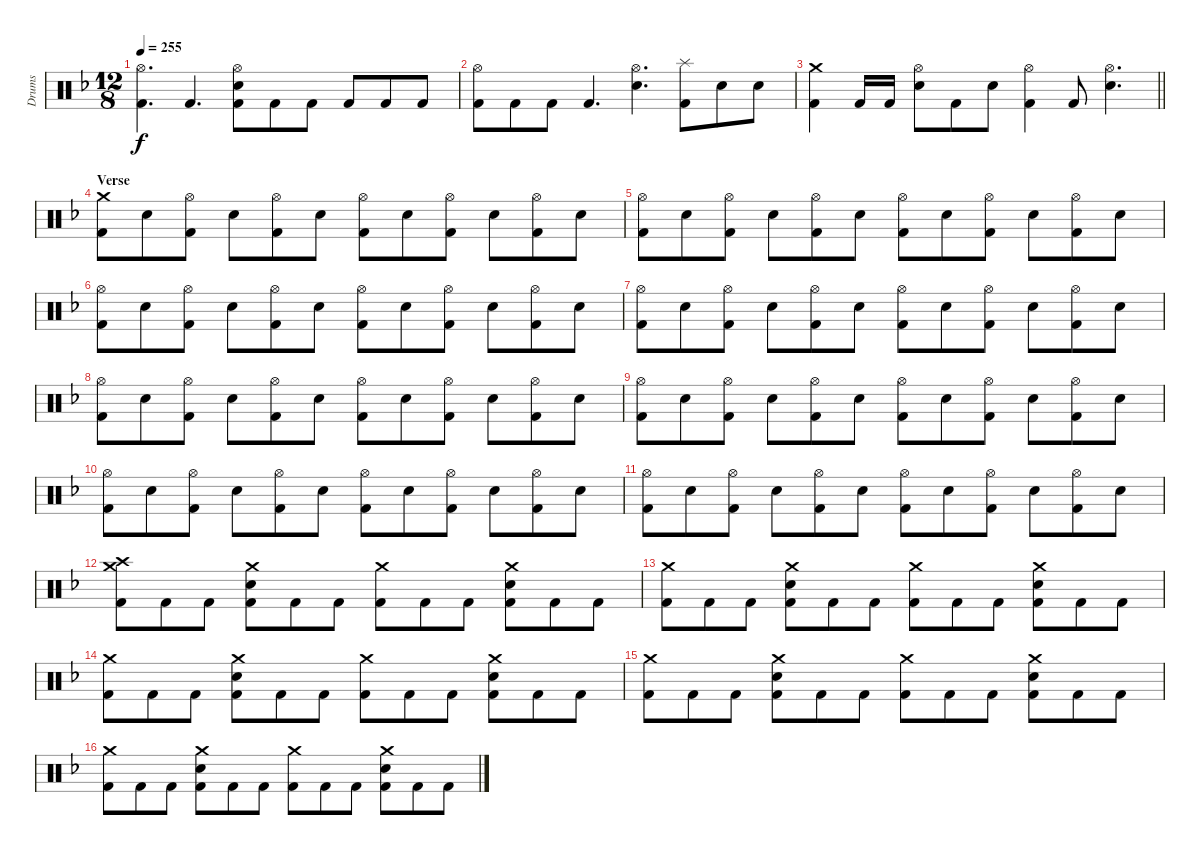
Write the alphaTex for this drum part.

\track ("Drums" "Drums") {instrument percussion}
\staff {score}
\articulation defaults
\ts (12 8)
\tempo 255
\clef neutral
\ks dminor
("Hi-Hat (open)" "Kick (hit) 2").4{d dy f} "Kick (hit) 2".4{d} ("Hi-Hat (open)" "Electric Snare (hit)" "Kick (hit) 2").8 "Kick (hit) 2".8 "Kick (hit) 2".8 "Kick (hit) 2".8 "Kick (hit) 2".8 "Kick (hit) 2".8 |
("Hi-Hat (open)" "Kick (hit) 2").8 "Kick (hit) 2".8 "Kick (hit) 2".8 "Kick (hit) 2".4{d} ("Hi-Hat (open)" "Electric Snare (hit)").4{d} ("Splash (hit)" "Kick (hit) 2").8 "Electric Snare (hit)".8 "Electric Snare (hit)".8 |
\barLineRight lightlight
("Crash medium (hit)" "Kick (hit) 2").4 "Kick (hit) 2".16 "Kick (hit) 2".16 ("Hi-Hat (open)" "Electric Snare (hit)").8 "Kick (hit) 2".8 "Electric Snare (hit)".8 ("Hi-Hat (open)" "Kick (hit) 2").4 "Kick (hit) 2".8 ("Hi-Hat (open)" "Electric Snare (hit)").4{d} |
\section ("" "Verse")
("Crash medium (hit)" "Kick (hit) 2").8 "Electric Snare (hit)".8 ("Hi-Hat (open)" "Kick (hit) 2").8 "Electric Snare (hit)".8 ("Hi-Hat (open)" "Kick (hit) 2").8 "Electric Snare (hit)".8 ("Hi-Hat (open)" "Kick (hit) 2").8 "Electric Snare (hit)".8 ("Hi-Hat (open)" "Kick (hit) 2").8 "Electric Snare (hit)".8 ("Hi-Hat (open)" "Kick (hit) 2").8 "Electric Snare (hit)".8 |
("Hi-Hat (open)" "Kick (hit) 2").8 "Electric Snare (hit)".8 ("Hi-Hat (open)" "Kick (hit) 2").8 "Electric Snare (hit)".8 ("Hi-Hat (open)" "Kick (hit) 2").8 "Electric Snare (hit)".8 ("Hi-Hat (open)" "Kick (hit) 2").8 "Electric Snare (hit)".8 ("Hi-Hat (open)" "Kick (hit) 2").8 "Electric Snare (hit)".8 ("Hi-Hat (open)" "Kick (hit) 2").8 "Electric Snare (hit)".8 |
("Hi-Hat (open)" "Kick (hit) 2").8 "Electric Snare (hit)".8 ("Hi-Hat (open)" "Kick (hit) 2").8 "Electric Snare (hit)".8 ("Hi-Hat (open)" "Kick (hit) 2").8 "Electric Snare (hit)".8 ("Hi-Hat (open)" "Kick (hit) 2").8 "Electric Snare (hit)".8 ("Hi-Hat (open)" "Kick (hit) 2").8 "Electric Snare (hit)".8 ("Hi-Hat (open)" "Kick (hit) 2").8 "Electric Snare (hit)".8 |
("Hi-Hat (open)" "Kick (hit) 2").8 "Electric Snare (hit)".8 ("Hi-Hat (open)" "Kick (hit) 2").8 "Electric Snare (hit)".8 ("Hi-Hat (open)" "Kick (hit) 2").8 "Electric Snare (hit)".8 ("Hi-Hat (open)" "Kick (hit) 2").8 "Electric Snare (hit)".8 ("Hi-Hat (open)" "Kick (hit) 2").8 "Electric Snare (hit)".8 ("Hi-Hat (open)" "Kick (hit) 2").8 "Electric Snare (hit)".8 |
("Hi-Hat (open)" "Kick (hit) 2").8 "Electric Snare (hit)".8 ("Hi-Hat (open)" "Kick (hit) 2").8 "Electric Snare (hit)".8 ("Hi-Hat (open)" "Kick (hit) 2").8 "Electric Snare (hit)".8 ("Hi-Hat (open)" "Kick (hit) 2").8 "Electric Snare (hit)".8 ("Hi-Hat (open)" "Kick (hit) 2").8 "Electric Snare (hit)".8 ("Hi-Hat (open)" "Kick (hit) 2").8 "Electric Snare (hit)".8 |
("Hi-Hat (open)" "Kick (hit) 2").8 "Electric Snare (hit)".8 ("Hi-Hat (open)" "Kick (hit) 2").8 "Electric Snare (hit)".8 ("Hi-Hat (open)" "Kick (hit) 2").8 "Electric Snare (hit)".8 ("Hi-Hat (open)" "Kick (hit) 2").8 "Electric Snare (hit)".8 ("Hi-Hat (open)" "Kick (hit) 2").8 "Electric Snare (hit)".8 ("Hi-Hat (open)" "Kick (hit) 2").8 "Electric Snare (hit)".8 |
("Hi-Hat (open)" "Kick (hit) 2").8 "Electric Snare (hit)".8 ("Hi-Hat (open)" "Kick (hit) 2").8 "Electric Snare (hit)".8 ("Hi-Hat (open)" "Kick (hit) 2").8 "Electric Snare (hit)".8 ("Hi-Hat (open)" "Kick (hit) 2").8 "Electric Snare (hit)".8 ("Hi-Hat (open)" "Kick (hit) 2").8 "Electric Snare (hit)".8 ("Hi-Hat (open)" "Kick (hit) 2").8 "Electric Snare (hit)".8 |
("Hi-Hat (open)" "Kick (hit) 2").8 "Electric Snare (hit)".8 ("Hi-Hat (open)" "Kick (hit) 2").8 "Electric Snare (hit)".8 ("Hi-Hat (open)" "Kick (hit) 2").8 "Electric Snare (hit)".8 ("Hi-Hat (open)" "Kick (hit) 2").8 "Electric Snare (hit)".8 ("Hi-Hat (open)" "Kick (hit) 2").8 "Electric Snare (hit)".8 ("Hi-Hat (open)" "Kick (hit) 2").8 "Electric Snare (hit)".8 |
("Crash medium (hit)" "Crash high (hit)" "Kick (hit) 2").8 "Kick (hit) 2".8 "Kick (hit) 2".8 ("Crash medium (hit)" "Electric Snare (hit)" "Kick (hit) 2").8 "Kick (hit) 2".8 "Kick (hit) 2".8 ("Crash medium (hit)" "Kick (hit) 2").8 "Kick (hit) 2".8 "Kick (hit) 2".8 ("Crash medium (hit)" "Electric Snare (hit)" "Kick (hit) 2").8 "Kick (hit) 2".8 "Kick (hit) 2".8 |
("Crash medium (hit)" "Kick (hit) 2").8 "Kick (hit) 2".8 "Kick (hit) 2".8 ("Crash medium (hit)" "Electric Snare (hit)" "Kick (hit) 2").8 "Kick (hit) 2".8 "Kick (hit) 2".8 ("Crash medium (hit)" "Kick (hit) 2").8 "Kick (hit) 2".8 "Kick (hit) 2".8 ("Crash medium (hit)" "Electric Snare (hit)" "Kick (hit) 2").8 "Kick (hit) 2".8 "Kick (hit) 2".8 |
("Crash medium (hit)" "Kick (hit) 2").8 "Kick (hit) 2".8 "Kick (hit) 2".8 ("Crash medium (hit)" "Electric Snare (hit)" "Kick (hit) 2").8 "Kick (hit) 2".8 "Kick (hit) 2".8 ("Crash medium (hit)" "Kick (hit) 2").8 "Kick (hit) 2".8 "Kick (hit) 2".8 ("Crash medium (hit)" "Electric Snare (hit)" "Kick (hit) 2").8 "Kick (hit) 2".8 "Kick (hit) 2".8 |
("Crash medium (hit)" "Kick (hit) 2").8 "Kick (hit) 2".8 "Kick (hit) 2".8 ("Crash medium (hit)" "Electric Snare (hit)" "Kick (hit) 2").8 "Kick (hit) 2".8 "Kick (hit) 2".8 ("Crash medium (hit)" "Kick (hit) 2").8 "Kick (hit) 2".8 "Kick (hit) 2".8 ("Crash medium (hit)" "Electric Snare (hit)" "Kick (hit) 2").8 "Kick (hit) 2".8 "Kick (hit) 2".8 |
("Crash medium (hit)" "Kick (hit) 2").8 "Kick (hit) 2".8 "Kick (hit) 2".8 ("Crash medium (hit)" "Electric Snare (hit)" "Kick (hit) 2").8 "Kick (hit) 2".8 "Kick (hit) 2".8 ("Crash medium (hit)" "Kick (hit) 2").8 "Kick (hit) 2".8 "Kick (hit) 2".8 ("Crash medium (hit)" "Electric Snare (hit)" "Kick (hit) 2").8 "Kick (hit) 2".8 "Kick (hit) 2".8
